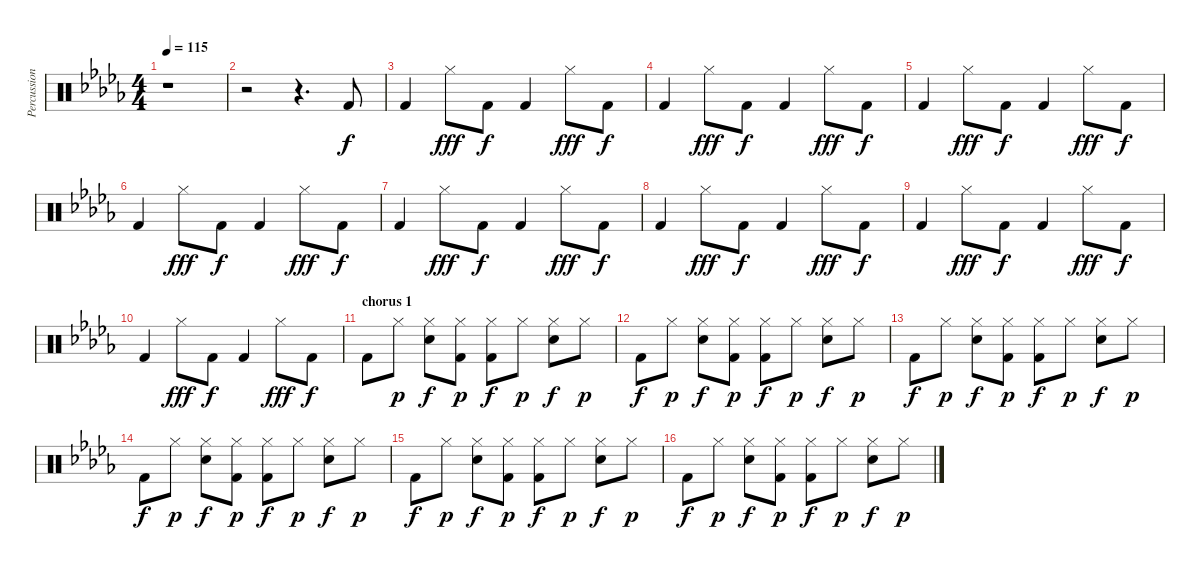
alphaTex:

\track ("Percussion" "Percussion") {instrument percussion}
\staff {score}
\articulation defaults
\ts (4 4)
\tempo 115
\clef neutral
\ks db
r.1{dy f} |
r.2 r.4{d} "Kick (hit) 2".8 |
"Kick (hit) 2".4 "Hi-Hat (closed)".8{dy fff} "Kick (hit) 2".8{dy f} "Kick (hit) 2".4 "Hi-Hat (closed)".8{dy fff} "Kick (hit) 2".8{dy f} |
"Kick (hit) 2".4 "Hi-Hat (closed)".8{dy fff} "Kick (hit) 2".8{dy f} "Kick (hit) 2".4 "Hi-Hat (closed)".8{dy fff} "Kick (hit) 2".8{dy f} |
"Kick (hit) 2".4 "Hi-Hat (closed)".8{dy fff} "Kick (hit) 2".8{dy f} "Kick (hit) 2".4 "Hi-Hat (closed)".8{dy fff} "Kick (hit) 2".8{dy f} |
"Kick (hit) 2".4 "Hi-Hat (closed)".8{dy fff} "Kick (hit) 2".8{dy f} "Kick (hit) 2".4 "Hi-Hat (closed)".8{dy fff} "Kick (hit) 2".8{dy f} |
"Kick (hit) 2".4 "Hi-Hat (closed)".8{dy fff} "Kick (hit) 2".8{dy f} "Kick (hit) 2".4 "Hi-Hat (closed)".8{dy fff} "Kick (hit) 2".8{dy f} |
"Kick (hit) 2".4 "Hi-Hat (closed)".8{dy fff} "Kick (hit) 2".8{dy f} "Kick (hit) 2".4 "Hi-Hat (closed)".8{dy fff} "Kick (hit) 2".8{dy f} |
"Kick (hit) 2".4 "Hi-Hat (closed)".8{dy fff} "Kick (hit) 2".8{dy f} "Kick (hit) 2".4 "Hi-Hat (closed)".8{dy fff} "Kick (hit) 2".8{dy f} |
"Kick (hit) 2".4 "Hi-Hat (closed)".8{dy fff} "Kick (hit) 2".8{dy f} "Kick (hit) 2".4 "Hi-Hat (closed)".8{dy fff} "Kick (hit) 2".8{dy f} |
\section ("" "chorus 1")
"Kick (hit) 2".8 "Hi-Hat (closed)".8{dy p} ("Hi-Hat (closed)" "Hand Clap (hit)").8{dy f} ("Hi-Hat (closed)" "Kick (hit) 2").8{dy p} ("Kick (hit) 2" "Hi-Hat (closed)").8{dy f} "Hi-Hat (closed)".8{dy p} ("Hand Clap (hit)" "Hi-Hat (closed)").8{dy f} "Hi-Hat (closed)".8{dy p} |
"Kick (hit) 2".8{dy f} "Hi-Hat (closed)".8{dy p} ("Hi-Hat (closed)" "Hand Clap (hit)").8{dy f} ("Hi-Hat (closed)" "Kick (hit) 2").8{dy p} ("Kick (hit) 2" "Hi-Hat (closed)").8{dy f} "Hi-Hat (closed)".8{dy p} ("Hand Clap (hit)" "Hi-Hat (closed)").8{dy f} "Hi-Hat (closed)".8{dy p} |
"Kick (hit) 2".8{dy f} "Hi-Hat (closed)".8{dy p} ("Hi-Hat (closed)" "Hand Clap (hit)").8{dy f} ("Hi-Hat (closed)" "Kick (hit) 2").8{dy p} ("Kick (hit) 2" "Hi-Hat (closed)").8{dy f} "Hi-Hat (closed)".8{dy p} ("Hand Clap (hit)" "Hi-Hat (closed)").8{dy f} "Hi-Hat (closed)".8{dy p} |
"Kick (hit) 2".8{dy f} "Hi-Hat (closed)".8{dy p} ("Hi-Hat (closed)" "Hand Clap (hit)").8{dy f} ("Hi-Hat (closed)" "Kick (hit) 2").8{dy p} ("Kick (hit) 2" "Hi-Hat (closed)").8{dy f} "Hi-Hat (closed)".8{dy p} ("Hand Clap (hit)" "Hi-Hat (closed)").8{dy f} "Hi-Hat (closed)".8{dy p} |
"Kick (hit) 2".8{dy f} "Hi-Hat (closed)".8{dy p} ("Hi-Hat (closed)" "Hand Clap (hit)").8{dy f} ("Hi-Hat (closed)" "Kick (hit) 2").8{dy p} ("Kick (hit) 2" "Hi-Hat (closed)").8{dy f} "Hi-Hat (closed)".8{dy p} ("Hand Clap (hit)" "Hi-Hat (closed)").8{dy f} "Hi-Hat (closed)".8{dy p} |
"Kick (hit) 2".8{dy f} "Hi-Hat (closed)".8{dy p} ("Hi-Hat (closed)" "Hand Clap (hit)").8{dy f} ("Hi-Hat (closed)" "Kick (hit) 2").8{dy p} ("Kick (hit) 2" "Hi-Hat (closed)").8{dy f} "Hi-Hat (closed)".8{dy p} ("Hand Clap (hit)" "Hi-Hat (closed)").8{dy f} "Hi-Hat (closed)".8{dy p}
